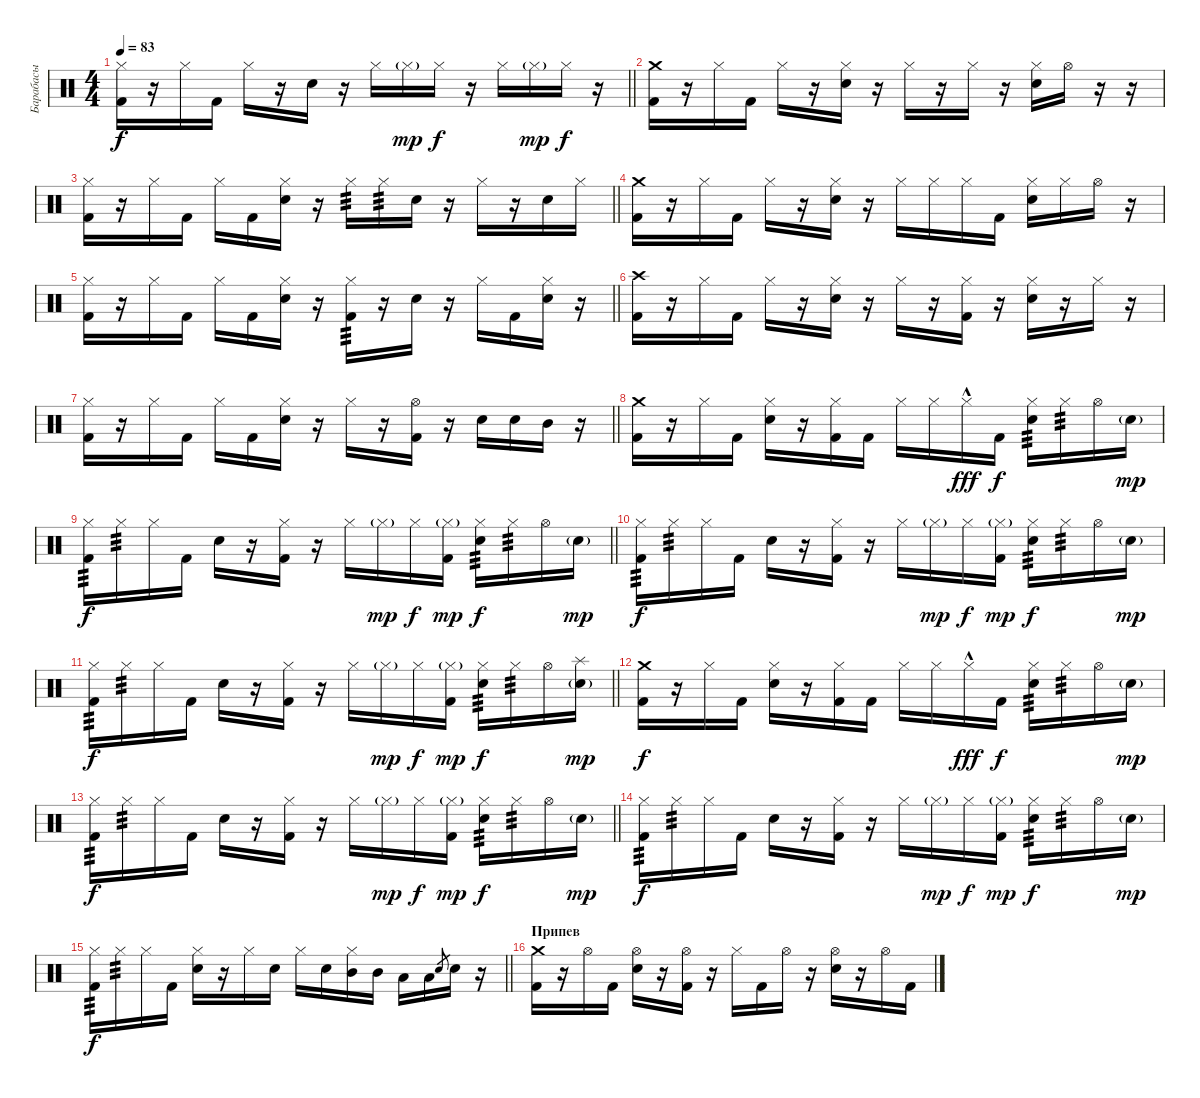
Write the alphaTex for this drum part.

\track ("Барабасы" "Барабасы") {instrument percussion}
\staff {score}
\articulation defaults
\ts (4 4)
\tempo 83
\clef neutral
\barLineRight lightlight
\ks c
("Kick (hit) 2" "Hi-Hat (closed)").16{dy f} r.16 "Hi-Hat (closed)".16 "Kick (hit) 2".16 "Hi-Hat (closed)".16 r.16 "Electric Snare (hit)".16 r.16 "Hi-Hat (closed)".16 "Hi-Hat (closed)"{g}.16{dy mp} "Hi-Hat (closed)".16{dy f} r.16 "Hi-Hat (closed)".16 "Hi-Hat (closed)"{g}.16{dy mp} "Hi-Hat (closed)".16{dy f} r.16 |
("Kick (hit) 2" "Crash medium (hit)").16 r.16 "Hi-Hat (closed)".16 "Kick (hit) 2".16 "Hi-Hat (closed)".16 r.16 ("Electric Snare (hit)" "Hi-Hat (closed)").16 r.16 "Hi-Hat (closed)".16 r.16 "Hi-Hat (closed)".16 r.16 ("Electric Snare (hit)" "Hi-Hat (closed)").16 "Hi-Hat (open)".16 r.16 r.16 |
\barLineRight lightlight
("Kick (hit) 2" "Hi-Hat (closed)").16 r.16 "Hi-Hat (closed)".16 "Kick (hit) 2".16 "Hi-Hat (closed)".16 "Kick (hit) 2".16 ("Electric Snare (hit)" "Hi-Hat (closed)").16 r.16 "Hi-Hat (closed)".16{tp 3} "Hi-Hat (closed)".16{tp 3} "Electric Snare (hit)".16 r.16 "Hi-Hat (closed)".16 r.16 "Electric Snare (hit)".16 "Hi-Hat (closed)".16 |
("Kick (hit) 2" "Crash medium (hit)").16 r.16 "Hi-Hat (closed)".16 "Kick (hit) 2".16 "Hi-Hat (closed)".16 r.16 ("Electric Snare (hit)" "Hi-Hat (closed)").16 r.16 "Hi-Hat (closed)".16 "Hi-Hat (closed)".16 "Hi-Hat (closed)".16 "Kick (hit) 2".16 ("Electric Snare (hit)" "Hi-Hat (closed)").16 "Hi-Hat (closed)".16 "Hi-Hat (open)".16 r.16 |
\barLineRight lightlight
("Kick (hit) 2" "Hi-Hat (closed)").16 r.16 "Hi-Hat (closed)".16 "Kick (hit) 2".16 "Hi-Hat (closed)".16 "Kick (hit) 2".16 ("Electric Snare (hit)" "Hi-Hat (closed)").16 r.16 ("Kick (hit) 2" "Hi-Hat (closed)").16{tp 3} r.16 "Electric Snare (hit)".16 r.16 "Hi-Hat (closed)".16 "Kick (hit) 2".16 ("Hi-Hat (closed)" "Electric Snare (hit)").16 r.16 |
("Kick (hit) 2" "Crash high (hit)").16 r.16 "Hi-Hat (closed)".16 "Kick (hit) 2".16 "Hi-Hat (closed)".16 r.16 ("Electric Snare (hit)" "Hi-Hat (closed)").16 r.16 "Hi-Hat (closed)".16 r.16 ("Kick (hit) 2" "Hi-Hat (closed)").16 r.16 ("Hi-Hat (closed)" "Electric Snare (hit)").16 r.16 "Hi-Hat (closed)".16 r.16 |
\barLineRight lightlight
("Kick (hit) 2" "Hi-Hat (closed)").16 r.16 "Hi-Hat (closed)".16 "Kick (hit) 2".16 "Hi-Hat (closed)".16 "Kick (hit) 2".16 ("Electric Snare (hit)" "Hi-Hat (closed)").16 r.16 "Hi-Hat (closed)".16 r.16 ("Kick (hit) 2" "Hi-Hat (open)").16 r.16 "Electric Snare (hit)".16 "Electric Snare (hit)".16 "Mid Tom (hit)".16 r.16 |
\section ("" "")
("Kick (hit) 2" "Crash medium (hit)").16 r.16 "Hi-Hat (closed)".16 "Kick (hit) 2".16 ("Electric Snare (hit)" "Hi-Hat (closed)").16 r.16 ("Kick (hit) 2" "Hi-Hat (closed)").16 "Kick (hit) 2".16 "Hi-Hat (closed)".16 "Hi-Hat (closed)".16 "Hi-Hat (closed)"{hac}.16{dy fff} "Kick (hit) 2".16{dy f} ("Electric Snare (hit)" "Hi-Hat (closed)").16{tp 3} "Hi-Hat (closed)".16{tp 3} "Hi-Hat (open)".16 "Electric Snare (hit)"{g}.16{dy mp} |
\barLineRight lightlight
("Kick (hit) 2" "Hi-Hat (closed)").16{tp 3 dy f} "Hi-Hat (closed)".16{tp 3} "Hi-Hat (closed)".16 "Kick (hit) 2".16 "Electric Snare (hit)".16 r.16 ("Kick (hit) 2" "Hi-Hat (closed)").16 r.16 "Hi-Hat (closed)".16 "Hi-Hat (closed)"{g}.16{dy mp} "Hi-Hat (closed)".16{dy f} ("Kick (hit) 2" "Hi-Hat (closed)"{g}).16{dy mp} ("Electric Snare (hit)" "Hi-Hat (closed)").16{tp 3 dy f} "Hi-Hat (closed)".16{tp 3} "Hi-Hat (open)".16 "Electric Snare (hit)"{g}.16{dy mp} |
("Kick (hit) 2" "Hi-Hat (closed)").16{tp 3 dy f} "Hi-Hat (closed)".16{tp 3} "Hi-Hat (closed)".16 "Kick (hit) 2".16 "Electric Snare (hit)".16 r.16 ("Kick (hit) 2" "Hi-Hat (closed)").16 r.16 "Hi-Hat (closed)".16 "Hi-Hat (closed)"{g}.16{dy mp} "Hi-Hat (closed)".16{dy f} ("Kick (hit) 2" "Hi-Hat (closed)"{g}).16{dy mp} ("Electric Snare (hit)" "Hi-Hat (closed)").16{tp 3 dy f} "Hi-Hat (closed)".16{tp 3} "Hi-Hat (open)".16 "Electric Snare (hit)"{g}.16{dy mp} |
\barLineRight lightlight
("Kick (hit) 2" "Hi-Hat (closed)").16{tp 3 dy f} "Hi-Hat (closed)".16{tp 3} "Hi-Hat (closed)".16 "Kick (hit) 2".16 "Electric Snare (hit)".16 r.16 ("Kick (hit) 2" "Hi-Hat (closed)").16 r.16 "Hi-Hat (closed)".16 "Hi-Hat (closed)"{g}.16{dy mp} "Hi-Hat (closed)".16{dy f} ("Kick (hit) 2" "Hi-Hat (closed)"{g}).16{dy mp} ("Electric Snare (hit)" "Hi-Hat (closed)").16{tp 3 dy f} "Hi-Hat (closed)".16{tp 3} "Hi-Hat (open)".16 ("Electric Snare (hit)"{g} "Splash (hit)").16{dy mp} |
("Kick (hit) 2" "Crash medium (hit)").16{dy f} r.16 "Hi-Hat (closed)".16 "Kick (hit) 2".16 ("Electric Snare (hit)" "Hi-Hat (closed)").16 r.16 ("Kick (hit) 2" "Hi-Hat (closed)").16 "Kick (hit) 2".16 "Hi-Hat (closed)".16 "Hi-Hat (closed)".16 "Hi-Hat (closed)"{hac}.16{dy fff} "Kick (hit) 2".16{dy f} ("Electric Snare (hit)" "Hi-Hat (closed)").16{tp 3} "Hi-Hat (closed)".16{tp 3} "Hi-Hat (open)".16 "Electric Snare (hit)"{g}.16{dy mp} |
\barLineRight lightlight
("Kick (hit) 2" "Hi-Hat (closed)").16{tp 3 dy f} "Hi-Hat (closed)".16{tp 3} "Hi-Hat (closed)".16 "Kick (hit) 2".16 "Electric Snare (hit)".16 r.16 ("Kick (hit) 2" "Hi-Hat (closed)").16 r.16 "Hi-Hat (closed)".16 "Hi-Hat (closed)"{g}.16{dy mp} "Hi-Hat (closed)".16{dy f} ("Kick (hit) 2" "Hi-Hat (closed)"{g}).16{dy mp} ("Electric Snare (hit)" "Hi-Hat (closed)").16{tp 3 dy f} "Hi-Hat (closed)".16{tp 3} "Hi-Hat (open)".16 "Electric Snare (hit)"{g}.16{dy mp} |
("Kick (hit) 2" "Hi-Hat (closed)").16{tp 3 dy f} "Hi-Hat (closed)".16{tp 3} "Hi-Hat (closed)".16 "Kick (hit) 2".16 "Electric Snare (hit)".16 r.16 ("Kick (hit) 2" "Hi-Hat (closed)").16 r.16 "Hi-Hat (closed)".16 "Hi-Hat (closed)"{g}.16{dy mp} "Hi-Hat (closed)".16{dy f} ("Kick (hit) 2" "Hi-Hat (closed)"{g}).16{dy mp} ("Electric Snare (hit)" "Hi-Hat (closed)").16{tp 3 dy f} "Hi-Hat (closed)".16{tp 3} "Hi-Hat (open)".16 "Electric Snare (hit)"{g}.16{dy mp} |
\barLineRight lightlight
("Kick (hit) 2" "Hi-Hat (closed)").16{tp 3 dy f} "Hi-Hat (closed)".16{tp 3} "Hi-Hat (closed)".16 "Kick (hit) 2".16 ("Electric Snare (hit)" "Hi-Hat (closed)").16 r.16 "Hi-Hat (closed)".16 "Electric Snare (hit)".16 "Hi-Hat (closed)".16 "Electric Snare (hit)".16 ("Mid Tom (hit)" "Hi-Hat (closed)").16 "Mid Tom (hit)".16 "Low Tom (hit)".16 "Low Tom (hit)".16 "Electric Snare (hit)".8{gr} "Electric Snare (hit)".16 r.16 |
\section ("" "Припев")
("Crash medium (hit)" "Kick (hit) 2").16 r.16 "Hi-Hat (open)".16 "Kick (hit) 2".16 ("Electric Snare (hit)" "Hi-Hat (open)").16 r.16 ("Hi-Hat (open)" "Kick (hit) 2").16 r.16 "Hi-Hat (closed)".16 "Kick (hit) 2".16 "Hi-Hat (open)".16 r.16 ("Electric Snare (hit)" "Hi-Hat (open)").16 r.16 "Hi-Hat (open)".16 "Kick (hit) 2".16
